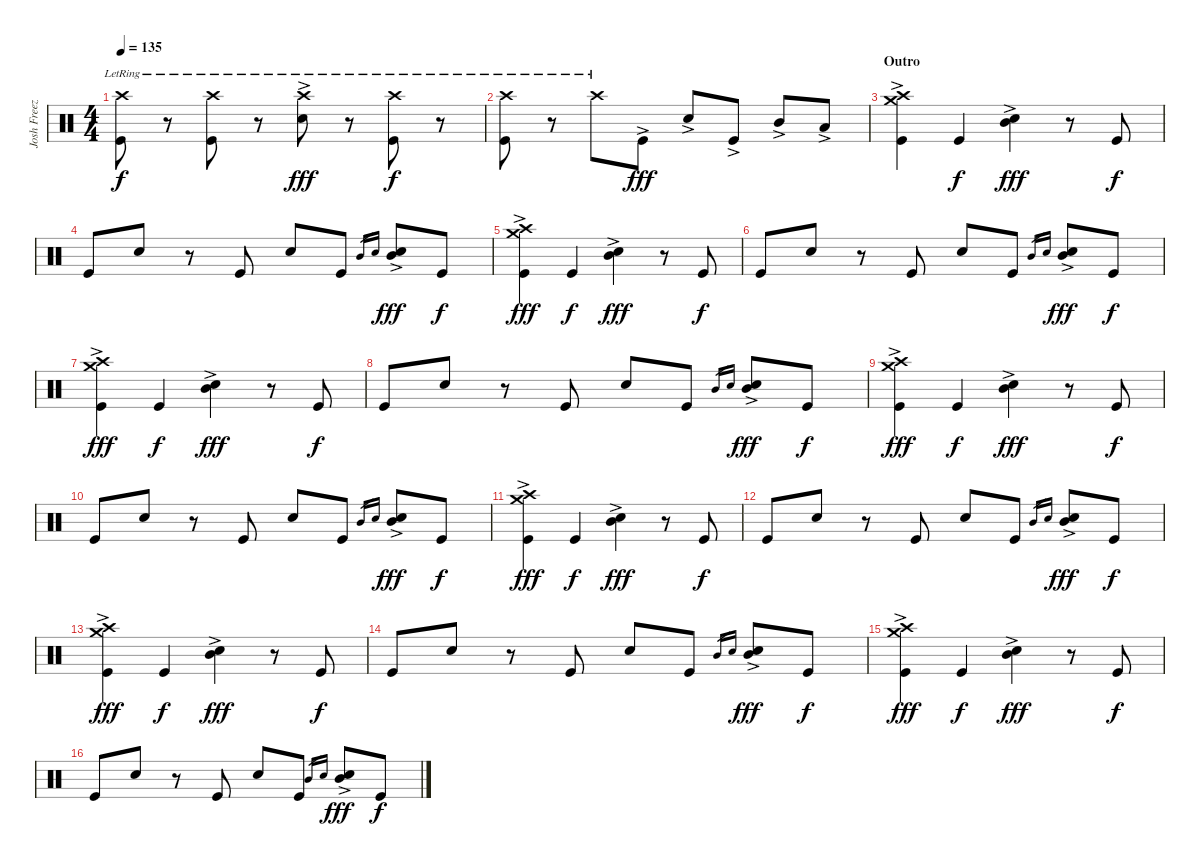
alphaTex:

\track ("Josh Freeze" "Josh Freez") {instrument percussion}
\staff {score}
\articulation defaults
\ts (4 4)
\tempo 135
\clef neutral
\ks c
("Crash high (hit)"{lr} "Kick (hit)").8{dy f} r.8 ("Crash high (hit)"{lr} "Kick (hit)").8 r.8 ("Crash high (hit)"{lr} "Electric Snare (hit)"{ac}).8{dy fff} r.8 ("Crash high (hit)"{lr} "Kick (hit)").8{dy f} r.8 |
("Crash high (hit)"{lr} "Kick (hit)").8 r.8 "Crash high (hit)"{lr}.8 "Kick (hit)"{ac}.8{dy fff} "Electric Snare (hit)"{ac}.8 "Kick (hit)"{ac}.8 "Mid Tom (hit)"{ac}.8 "Low Tom (hit)"{ac}.8 |
\section ("" "Outro")
("Crash high (hit)"{ac} "Crash medium (hit)"{ac} "Kick (hit)").4 "Kick (hit)".4{dy f} ("Mid Tom (hit)"{ac} "Electric Snare (hit)"{ac}).4{dy fff} r.8 "Kick (hit)".8{dy f} |
"Kick (hit)".8 "Electric Snare (hit)".8 r.8 "Kick (hit)".8 "Electric Snare (hit)".8 "Kick (hit)".8 "Mid Tom (hit)".16{gr} "Electric Snare (hit)".16{gr} ("Mid Tom (hit)"{ac} "Electric Snare (hit)"{ac}).8{dy fff} "Kick (hit)".8{dy f} |
("Crash high (hit)"{ac} "Crash medium (hit)"{ac} "Kick (hit)").4{dy fff} "Kick (hit)".4{dy f} ("Mid Tom (hit)"{ac} "Electric Snare (hit)"{ac}).4{dy fff} r.8 "Kick (hit)".8{dy f} |
"Kick (hit)".8 "Electric Snare (hit)".8 r.8 "Kick (hit)".8 "Electric Snare (hit)".8 "Kick (hit)".8 "Mid Tom (hit)".16{gr} "Electric Snare (hit)".16{gr} ("Mid Tom (hit)"{ac} "Electric Snare (hit)"{ac}).8{dy fff} "Kick (hit)".8{dy f} |
("Crash high (hit)"{ac} "Crash medium (hit)"{ac} "Kick (hit)").4{dy fff} "Kick (hit)".4{dy f} ("Mid Tom (hit)"{ac} "Electric Snare (hit)"{ac}).4{dy fff} r.8 "Kick (hit)".8{dy f} |
"Kick (hit)".8 "Electric Snare (hit)".8 r.8 "Kick (hit)".8 "Electric Snare (hit)".8 "Kick (hit)".8 "Mid Tom (hit)".16{gr} "Electric Snare (hit)".16{gr} ("Mid Tom (hit)"{ac} "Electric Snare (hit)"{ac}).8{dy fff} "Kick (hit)".8{dy f} |
("Crash high (hit)"{ac} "Crash medium (hit)"{ac} "Kick (hit)").4{dy fff} "Kick (hit)".4{dy f} ("Mid Tom (hit)"{ac} "Electric Snare (hit)"{ac}).4{dy fff} r.8 "Kick (hit)".8{dy f} |
"Kick (hit)".8 "Electric Snare (hit)".8 r.8 "Kick (hit)".8 "Electric Snare (hit)".8 "Kick (hit)".8 "Mid Tom (hit)".16{gr} "Electric Snare (hit)".16{gr} ("Mid Tom (hit)"{ac} "Electric Snare (hit)"{ac}).8{dy fff} "Kick (hit)".8{dy f} |
("Crash high (hit)"{ac} "Crash medium (hit)"{ac} "Kick (hit)").4{dy fff} "Kick (hit)".4{dy f} ("Mid Tom (hit)"{ac} "Electric Snare (hit)"{ac}).4{dy fff} r.8 "Kick (hit)".8{dy f} |
"Kick (hit)".8 "Electric Snare (hit)".8 r.8 "Kick (hit)".8 "Electric Snare (hit)".8 "Kick (hit)".8 "Mid Tom (hit)".16{gr} "Electric Snare (hit)".16{gr} ("Mid Tom (hit)"{ac} "Electric Snare (hit)"{ac}).8{dy fff} "Kick (hit)".8{dy f} |
("Crash high (hit)"{ac} "Crash medium (hit)"{ac} "Kick (hit)").4{dy fff} "Kick (hit)".4{dy f} ("Mid Tom (hit)"{ac} "Electric Snare (hit)"{ac}).4{dy fff} r.8 "Kick (hit)".8{dy f} |
"Kick (hit)".8 "Electric Snare (hit)".8 r.8 "Kick (hit)".8 "Electric Snare (hit)".8 "Kick (hit)".8 "Mid Tom (hit)".16{gr} "Electric Snare (hit)".16{gr} ("Mid Tom (hit)"{ac} "Electric Snare (hit)"{ac}).8{dy fff} "Kick (hit)".8{dy f} |
("Crash high (hit)"{ac} "Crash medium (hit)"{ac} "Kick (hit)").4{dy fff} "Kick (hit)".4{dy f} ("Mid Tom (hit)"{ac} "Electric Snare (hit)"{ac}).4{dy fff} r.8 "Kick (hit)".8{dy f} |
"Kick (hit)".8 "Electric Snare (hit)".8 r.8 "Kick (hit)".8 "Electric Snare (hit)".8 "Kick (hit)".8 "Mid Tom (hit)".16{gr} "Electric Snare (hit)".16{gr} ("Mid Tom (hit)"{ac} "Electric Snare (hit)"{ac}).8{dy fff} "Kick (hit)".8{dy f}
